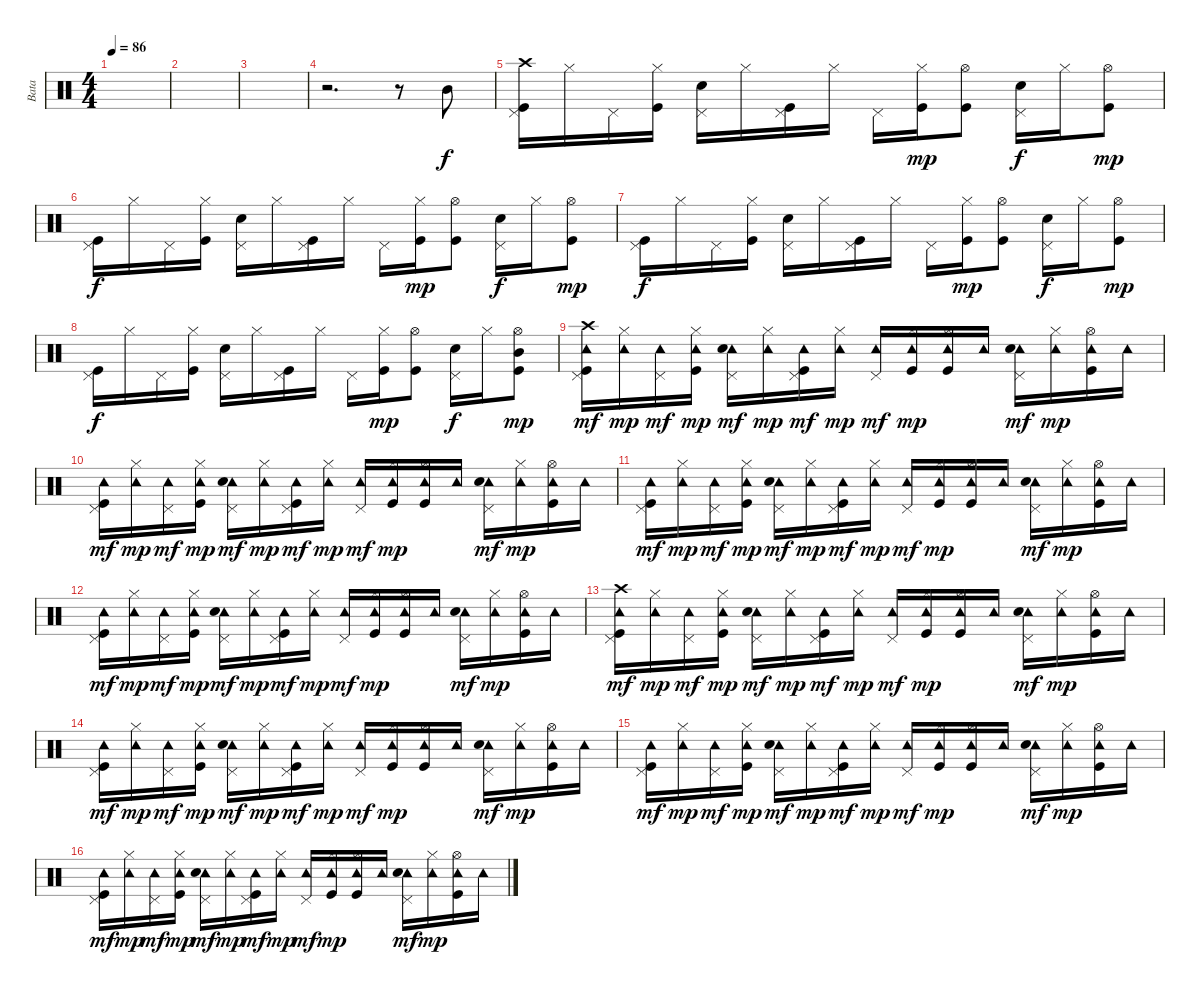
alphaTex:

\track ("Bata" "Bata") {instrument percussion}
\staff {score}
\articulation defaults
\ts (4 4)
\tempo 86
\clef neutral
\ks c
|
|
|
r.2{d} r.8 "Mid Tom (hit)".8 |
("Crash high (hit)" "Pedal Hi-Hat (hit)" "Kick (hit)").16 "Hi-Hat (closed)".16 "Pedal Hi-Hat (hit)".16 ("Hi-Hat (closed)" "Kick (hit)").16 ("Pedal Hi-Hat (hit)" "Electric Snare (hit)").16 "Hi-Hat (closed)".16 ("Pedal Hi-Hat (hit)" "Kick (hit)").16 "Hi-Hat (closed)".16 "Pedal Hi-Hat (hit)".16 ("Hi-Hat (closed)" "Kick (hit)").16{dy mp} ("Hi-Hat (open)" "Kick (hit)").8 ("Pedal Hi-Hat (hit)" "Electric Snare (hit)").16{dy f} "Hi-Hat (closed)".16 ("Hi-Hat (open)" "Kick (hit)").8{dy mp} |
("Pedal Hi-Hat (hit)" "Kick (hit)").16{dy f} "Hi-Hat (closed)".16 "Pedal Hi-Hat (hit)".16 ("Hi-Hat (closed)" "Kick (hit)").16 ("Pedal Hi-Hat (hit)" "Electric Snare (hit)").16 "Hi-Hat (closed)".16 ("Pedal Hi-Hat (hit)" "Kick (hit)").16 "Hi-Hat (closed)".16 "Pedal Hi-Hat (hit)".16 ("Hi-Hat (closed)" "Kick (hit)").16{dy mp} ("Hi-Hat (open)" "Kick (hit)").8 ("Pedal Hi-Hat (hit)" "Electric Snare (hit)").16{dy f} "Hi-Hat (closed)".16 ("Hi-Hat (open)" "Kick (hit)").8{dy mp} |
("Pedal Hi-Hat (hit)" "Kick (hit)").16{dy f} "Hi-Hat (closed)".16 "Pedal Hi-Hat (hit)".16 ("Hi-Hat (closed)" "Kick (hit)").16 ("Pedal Hi-Hat (hit)" "Electric Snare (hit)").16 "Hi-Hat (closed)".16 ("Pedal Hi-Hat (hit)" "Kick (hit)").16 "Hi-Hat (closed)".16 "Pedal Hi-Hat (hit)".16 ("Hi-Hat (closed)" "Kick (hit)").16{dy mp} ("Hi-Hat (open)" "Kick (hit)").8 ("Pedal Hi-Hat (hit)" "Electric Snare (hit)").16{dy f} "Hi-Hat (closed)".16 ("Hi-Hat (open)" "Kick (hit)").8{dy mp} |
("Pedal Hi-Hat (hit)" "Kick (hit)").16{dy f} "Hi-Hat (closed)".16 "Pedal Hi-Hat (hit)".16 ("Hi-Hat (closed)" "Kick (hit)").16 ("Pedal Hi-Hat (hit)" "Electric Snare (hit)").16 "Hi-Hat (closed)".16 ("Pedal Hi-Hat (hit)" "Kick (hit)").16 "Hi-Hat (closed)".16 "Pedal Hi-Hat (hit)".16 ("Hi-Hat (closed)" "Kick (hit)").16{dy mp} ("Hi-Hat (open)" "Kick (hit)").8 ("Pedal Hi-Hat (hit)" "Electric Snare (hit)").16{dy f} "Hi-Hat (closed)".16 ("Hi-Hat (open)" "Mid Tom (hit)" "Kick (hit)").8{dy mp} |
("Crash high (hit)" "Tambourine (hit)" "Pedal Hi-Hat (hit)" "Kick (hit)").16{dy mf} ("Tambourine (hit)" "Hi-Hat (closed)").16{dy mp} ("Tambourine (hit)" "Pedal Hi-Hat (hit)").16{dy mf} ("Tambourine (hit)" "Hi-Hat (closed)" "Kick (hit)").16{dy mp} ("Tambourine (hit)" "Pedal Hi-Hat (hit)" "Electric Snare (hit)").16{dy mf} ("Tambourine (hit)" "Hi-Hat (closed)").16{dy mp} ("Tambourine (hit)" "Pedal Hi-Hat (hit)" "Kick (hit)").16{dy mf} ("Tambourine (hit)" "Hi-Hat (closed)").16{dy mp} ("Tambourine (hit)" "Pedal Hi-Hat (hit)").16{dy mf} ("Tambourine (hit)" "Hi-Hat (closed)" "Kick (hit)").16{dy mp} ("Tambourine (hit)" "Hi-Hat (open)" "Kick (hit)").16 "Tambourine (hit)".16 ("Tambourine (hit)" "Pedal Hi-Hat (hit)" "Electric Snare (hit)").16{dy mf} ("Tambourine (hit)" "Hi-Hat (closed)").16{dy mp} ("Tambourine (hit)" "Hi-Hat (open)" "Kick (hit)").16 "Tambourine (hit)".16 |
("Tambourine (hit)" "Pedal Hi-Hat (hit)" "Kick (hit)").16{dy mf} ("Tambourine (hit)" "Hi-Hat (closed)").16{dy mp} ("Tambourine (hit)" "Pedal Hi-Hat (hit)").16{dy mf} ("Tambourine (hit)" "Hi-Hat (closed)" "Kick (hit)").16{dy mp} ("Tambourine (hit)" "Pedal Hi-Hat (hit)" "Electric Snare (hit)").16{dy mf} ("Tambourine (hit)" "Hi-Hat (closed)").16{dy mp} ("Tambourine (hit)" "Pedal Hi-Hat (hit)" "Kick (hit)").16{dy mf} ("Tambourine (hit)" "Hi-Hat (closed)").16{dy mp} ("Tambourine (hit)" "Pedal Hi-Hat (hit)").16{dy mf} ("Tambourine (hit)" "Hi-Hat (closed)" "Kick (hit)").16{dy mp} ("Tambourine (hit)" "Hi-Hat (open)" "Kick (hit)").16 "Tambourine (hit)".16 ("Tambourine (hit)" "Pedal Hi-Hat (hit)" "Electric Snare (hit)").16{dy mf} ("Tambourine (hit)" "Hi-Hat (closed)").16{dy mp} ("Tambourine (hit)" "Hi-Hat (open)" "Kick (hit)").16 "Tambourine (hit)".16 |
("Tambourine (hit)" "Pedal Hi-Hat (hit)" "Kick (hit)").16{dy mf} ("Tambourine (hit)" "Hi-Hat (closed)").16{dy mp} ("Tambourine (hit)" "Pedal Hi-Hat (hit)").16{dy mf} ("Tambourine (hit)" "Hi-Hat (closed)" "Kick (hit)").16{dy mp} ("Tambourine (hit)" "Pedal Hi-Hat (hit)" "Electric Snare (hit)").16{dy mf} ("Tambourine (hit)" "Hi-Hat (closed)").16{dy mp} ("Tambourine (hit)" "Pedal Hi-Hat (hit)" "Kick (hit)").16{dy mf} ("Tambourine (hit)" "Hi-Hat (closed)").16{dy mp} ("Tambourine (hit)" "Pedal Hi-Hat (hit)").16{dy mf} ("Tambourine (hit)" "Hi-Hat (closed)" "Kick (hit)").16{dy mp} ("Tambourine (hit)" "Hi-Hat (open)" "Kick (hit)").16 "Tambourine (hit)".16 ("Tambourine (hit)" "Pedal Hi-Hat (hit)" "Electric Snare (hit)").16{dy mf} ("Tambourine (hit)" "Hi-Hat (closed)").16{dy mp} ("Tambourine (hit)" "Hi-Hat (open)" "Kick (hit)").16 "Tambourine (hit)".16 |
("Tambourine (hit)" "Pedal Hi-Hat (hit)" "Kick (hit)").16{dy mf} ("Tambourine (hit)" "Hi-Hat (closed)").16{dy mp} ("Tambourine (hit)" "Pedal Hi-Hat (hit)").16{dy mf} ("Tambourine (hit)" "Hi-Hat (closed)" "Kick (hit)").16{dy mp} ("Tambourine (hit)" "Pedal Hi-Hat (hit)" "Electric Snare (hit)").16{dy mf} ("Tambourine (hit)" "Hi-Hat (closed)").16{dy mp} ("Tambourine (hit)" "Pedal Hi-Hat (hit)" "Kick (hit)").16{dy mf} ("Tambourine (hit)" "Hi-Hat (closed)").16{dy mp} ("Tambourine (hit)" "Pedal Hi-Hat (hit)").16{dy mf} ("Tambourine (hit)" "Hi-Hat (closed)" "Kick (hit)").16{dy mp} ("Tambourine (hit)" "Hi-Hat (open)" "Kick (hit)").16 "Tambourine (hit)".16 ("Tambourine (hit)" "Pedal Hi-Hat (hit)" "Electric Snare (hit)").16{dy mf} ("Tambourine (hit)" "Hi-Hat (closed)").16{dy mp} ("Tambourine (hit)" "Hi-Hat (open)" "Kick (hit)").16 "Tambourine (hit)".16 |
("Crash high (hit)" "Tambourine (hit)" "Pedal Hi-Hat (hit)" "Kick (hit)").16{dy mf} ("Tambourine (hit)" "Hi-Hat (closed)").16{dy mp} ("Tambourine (hit)" "Pedal Hi-Hat (hit)").16{dy mf} ("Tambourine (hit)" "Hi-Hat (closed)" "Kick (hit)").16{dy mp} ("Tambourine (hit)" "Pedal Hi-Hat (hit)" "Electric Snare (hit)").16{dy mf} ("Tambourine (hit)" "Hi-Hat (closed)").16{dy mp} ("Tambourine (hit)" "Pedal Hi-Hat (hit)" "Kick (hit)").16{dy mf} ("Tambourine (hit)" "Hi-Hat (closed)").16{dy mp} ("Tambourine (hit)" "Pedal Hi-Hat (hit)").16{dy mf} ("Tambourine (hit)" "Hi-Hat (closed)" "Kick (hit)").16{dy mp} ("Tambourine (hit)" "Hi-Hat (open)" "Kick (hit)").16 "Tambourine (hit)".16 ("Tambourine (hit)" "Pedal Hi-Hat (hit)" "Electric Snare (hit)").16{dy mf} ("Tambourine (hit)" "Hi-Hat (closed)").16{dy mp} ("Tambourine (hit)" "Hi-Hat (open)" "Kick (hit)").16 "Tambourine (hit)".16 |
("Tambourine (hit)" "Pedal Hi-Hat (hit)" "Kick (hit)").16{dy mf} ("Tambourine (hit)" "Hi-Hat (closed)").16{dy mp} ("Tambourine (hit)" "Pedal Hi-Hat (hit)").16{dy mf} ("Tambourine (hit)" "Hi-Hat (closed)" "Kick (hit)").16{dy mp} ("Tambourine (hit)" "Pedal Hi-Hat (hit)" "Electric Snare (hit)").16{dy mf} ("Tambourine (hit)" "Hi-Hat (closed)").16{dy mp} ("Tambourine (hit)" "Pedal Hi-Hat (hit)" "Kick (hit)").16{dy mf} ("Tambourine (hit)" "Hi-Hat (closed)").16{dy mp} ("Tambourine (hit)" "Pedal Hi-Hat (hit)").16{dy mf} ("Tambourine (hit)" "Hi-Hat (closed)" "Kick (hit)").16{dy mp} ("Tambourine (hit)" "Hi-Hat (open)" "Kick (hit)").16 "Tambourine (hit)".16 ("Tambourine (hit)" "Pedal Hi-Hat (hit)" "Electric Snare (hit)").16{dy mf} ("Tambourine (hit)" "Hi-Hat (closed)").16{dy mp} ("Tambourine (hit)" "Hi-Hat (open)" "Kick (hit)").16 "Tambourine (hit)".16 |
("Tambourine (hit)" "Pedal Hi-Hat (hit)" "Kick (hit)").16{dy mf} ("Tambourine (hit)" "Hi-Hat (closed)").16{dy mp} ("Tambourine (hit)" "Pedal Hi-Hat (hit)").16{dy mf} ("Tambourine (hit)" "Hi-Hat (closed)" "Kick (hit)").16{dy mp} ("Tambourine (hit)" "Pedal Hi-Hat (hit)" "Electric Snare (hit)").16{dy mf} ("Tambourine (hit)" "Hi-Hat (closed)").16{dy mp} ("Tambourine (hit)" "Pedal Hi-Hat (hit)" "Kick (hit)").16{dy mf} ("Tambourine (hit)" "Hi-Hat (closed)").16{dy mp} ("Tambourine (hit)" "Pedal Hi-Hat (hit)").16{dy mf} ("Tambourine (hit)" "Hi-Hat (closed)" "Kick (hit)").16{dy mp} ("Tambourine (hit)" "Hi-Hat (open)" "Kick (hit)").16 "Tambourine (hit)".16 ("Tambourine (hit)" "Pedal Hi-Hat (hit)" "Electric Snare (hit)").16{dy mf} ("Tambourine (hit)" "Hi-Hat (closed)").16{dy mp} ("Tambourine (hit)" "Hi-Hat (open)" "Kick (hit)").16 "Tambourine (hit)".16 |
("Tambourine (hit)" "Pedal Hi-Hat (hit)" "Kick (hit)").16{dy mf} ("Tambourine (hit)" "Hi-Hat (closed)").16{dy mp} ("Tambourine (hit)" "Pedal Hi-Hat (hit)").16{dy mf} ("Tambourine (hit)" "Hi-Hat (closed)" "Kick (hit)").16{dy mp} ("Tambourine (hit)" "Pedal Hi-Hat (hit)" "Electric Snare (hit)").16{dy mf} ("Tambourine (hit)" "Hi-Hat (closed)").16{dy mp} ("Tambourine (hit)" "Pedal Hi-Hat (hit)" "Kick (hit)").16{dy mf} ("Tambourine (hit)" "Hi-Hat (closed)").16{dy mp} ("Tambourine (hit)" "Pedal Hi-Hat (hit)").16{dy mf} ("Tambourine (hit)" "Hi-Hat (closed)" "Kick (hit)").16{dy mp} ("Tambourine (hit)" "Hi-Hat (open)" "Kick (hit)").16 "Tambourine (hit)".16 ("Tambourine (hit)" "Pedal Hi-Hat (hit)" "Electric Snare (hit)").16{dy mf} ("Tambourine (hit)" "Hi-Hat (closed)").16{dy mp} ("Tambourine (hit)" "Hi-Hat (open)" "Kick (hit)").16 "Tambourine (hit)".16
